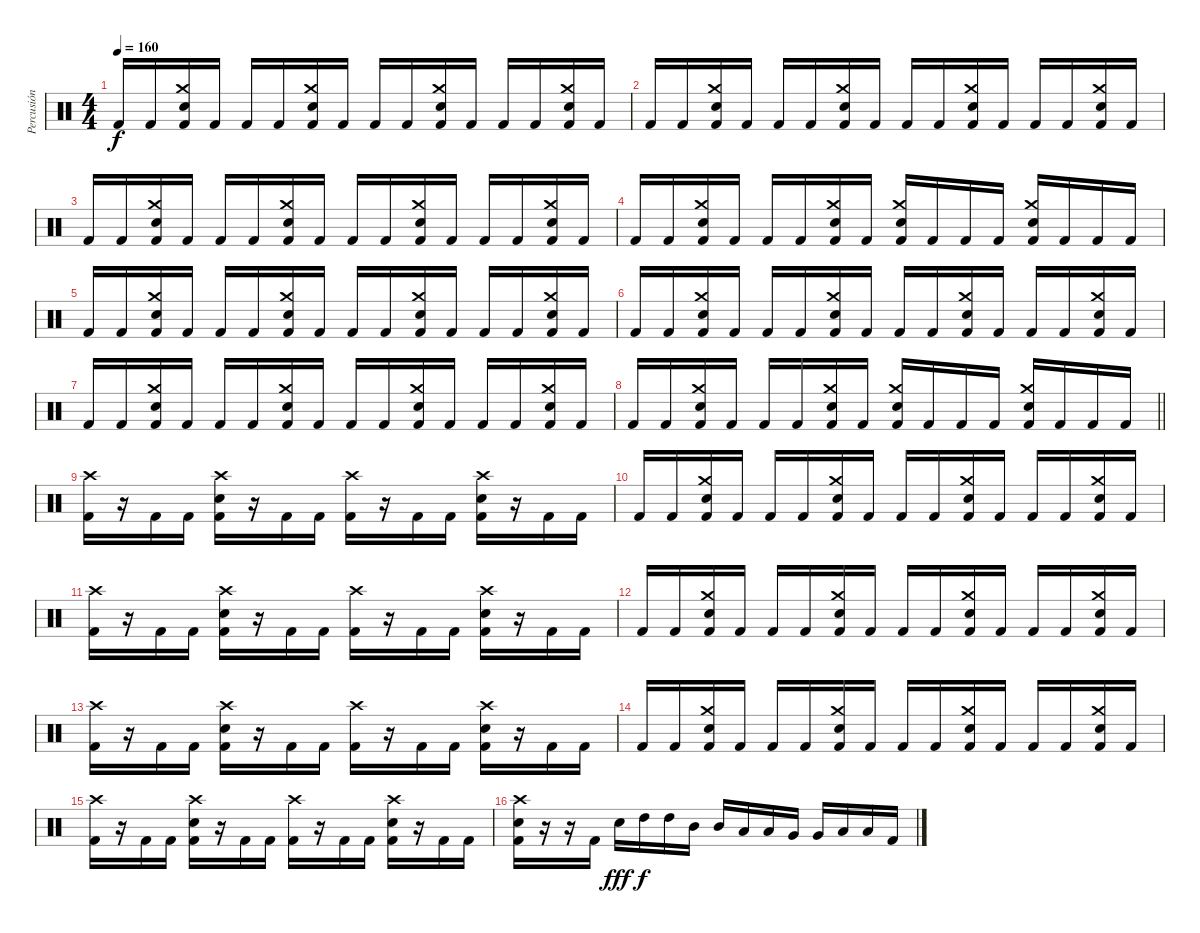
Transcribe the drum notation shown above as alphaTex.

\track ("Percusión" "Percusión") {instrument percussion}
\staff {score}
\articulation defaults
\ts (4 4)
\tempo 160
\clef neutral
\ks c "Kick (hit) 2".16{dy f} "Kick (hit) 2".16
("Crash medium (hit)" "Electric Snare (hit)" "Kick (hit) 2").16 "Kick (hit) 2".16 "Kick (hit) 2".16 "Kick (hit) 2".16 ("Crash medium (hit)" "Electric Snare (hit)" "Kick (hit) 2").16 "Kick (hit) 2".16 "Kick (hit) 2".16 "Kick (hit) 2".16 ("Crash medium (hit)" "Electric Snare (hit)" "Kick (hit) 2").16 "Kick (hit) 2".16 "Kick (hit) 2".16 "Kick (hit) 2".16 ("Crash medium (hit)" "Electric Snare (hit)" "Kick (hit) 2").16 "Kick (hit) 2".16 |
"Kick (hit) 2".16 "Kick (hit) 2".16 ("Crash medium (hit)" "Electric Snare (hit)" "Kick (hit) 2").16 "Kick (hit) 2".16 "Kick (hit) 2".16 "Kick (hit) 2".16 ("Crash medium (hit)" "Electric Snare (hit)" "Kick (hit) 2").16 "Kick (hit) 2".16 "Kick (hit) 2".16 "Kick (hit) 2".16 ("Crash medium (hit)" "Electric Snare (hit)" "Kick (hit) 2").16 "Kick (hit) 2".16 "Kick (hit) 2".16 "Kick (hit) 2".16 ("Crash medium (hit)" "Electric Snare (hit)" "Kick (hit) 2").16 "Kick (hit) 2".16 |
"Kick (hit) 2".16 "Kick (hit) 2".16 ("Crash medium (hit)" "Electric Snare (hit)" "Kick (hit) 2").16 "Kick (hit) 2".16 "Kick (hit) 2".16 "Kick (hit) 2".16 ("Crash medium (hit)" "Electric Snare (hit)" "Kick (hit) 2").16 "Kick (hit) 2".16 "Kick (hit) 2".16 "Kick (hit) 2".16 ("Crash medium (hit)" "Electric Snare (hit)" "Kick (hit) 2").16 "Kick (hit) 2".16 "Kick (hit) 2".16 "Kick (hit) 2".16 ("Crash medium (hit)" "Electric Snare (hit)" "Kick (hit) 2").16 "Kick (hit) 2".16 |
"Kick (hit) 2".16 "Kick (hit) 2".16 ("Crash medium (hit)" "Electric Snare (hit)" "Kick (hit) 2").16 "Kick (hit) 2".16 "Kick (hit) 2".16 "Kick (hit) 2".16 ("Crash medium (hit)" "Electric Snare (hit)" "Kick (hit) 2").16 "Kick (hit) 2".16 ("Crash medium (hit)" "Electric Snare (hit)" "Kick (hit) 2").16 "Kick (hit) 2".16 "Kick (hit) 2".16 "Kick (hit) 2".16 ("Crash medium (hit)" "Electric Snare (hit)" "Kick (hit) 2").16 "Kick (hit) 2".16 "Kick (hit) 2".16 "Kick (hit) 2".16 |
"Kick (hit) 2".16 "Kick (hit) 2".16 ("Crash medium (hit)" "Electric Snare (hit)" "Kick (hit) 2").16 "Kick (hit) 2".16 "Kick (hit) 2".16 "Kick (hit) 2".16 ("Crash medium (hit)" "Electric Snare (hit)" "Kick (hit) 2").16 "Kick (hit) 2".16 "Kick (hit) 2".16 "Kick (hit) 2".16 ("Crash medium (hit)" "Electric Snare (hit)" "Kick (hit) 2").16 "Kick (hit) 2".16 "Kick (hit) 2".16 "Kick (hit) 2".16 ("Crash medium (hit)" "Electric Snare (hit)" "Kick (hit) 2").16 "Kick (hit) 2".16 |
"Kick (hit) 2".16 "Kick (hit) 2".16 ("Crash medium (hit)" "Electric Snare (hit)" "Kick (hit) 2").16 "Kick (hit) 2".16 "Kick (hit) 2".16 "Kick (hit) 2".16 ("Crash medium (hit)" "Electric Snare (hit)" "Kick (hit) 2").16 "Kick (hit) 2".16 "Kick (hit) 2".16 "Kick (hit) 2".16 ("Crash medium (hit)" "Electric Snare (hit)" "Kick (hit) 2").16 "Kick (hit) 2".16 "Kick (hit) 2".16 "Kick (hit) 2".16 ("Crash medium (hit)" "Electric Snare (hit)" "Kick (hit) 2").16 "Kick (hit) 2".16 |
"Kick (hit) 2".16 "Kick (hit) 2".16 ("Crash medium (hit)" "Electric Snare (hit)" "Kick (hit) 2").16 "Kick (hit) 2".16 "Kick (hit) 2".16 "Kick (hit) 2".16 ("Crash medium (hit)" "Electric Snare (hit)" "Kick (hit) 2").16 "Kick (hit) 2".16 "Kick (hit) 2".16 "Kick (hit) 2".16 ("Crash medium (hit)" "Electric Snare (hit)" "Kick (hit) 2").16 "Kick (hit) 2".16 "Kick (hit) 2".16 "Kick (hit) 2".16 ("Crash medium (hit)" "Electric Snare (hit)" "Kick (hit) 2").16 "Kick (hit) 2".16 |
\barLineRight lightlight "Kick (hit) 2".16 "Kick (hit) 2".16
("Crash medium (hit)" "Electric Snare (hit)" "Kick (hit) 2").16 "Kick (hit) 2".16 "Kick (hit) 2".16 "Kick (hit) 2".16 ("Crash medium (hit)" "Electric Snare (hit)" "Kick (hit) 2").16 "Kick (hit) 2".16 ("Crash medium (hit)" "Electric Snare (hit)" "Kick (hit) 2").16 "Kick (hit) 2".16 "Kick (hit) 2".16 "Kick (hit) 2".16 ("Crash medium (hit)" "Electric Snare (hit)" "Kick (hit) 2").16 "Kick (hit) 2".16 "Kick (hit) 2".16 "Kick (hit) 2".16 |
("Crash high (hit)" "Kick (hit) 2").16 r.16 "Kick (hit) 2".16 "Kick (hit) 2".16 ("Crash high (hit)" "Electric Snare (hit)" "Kick (hit) 2").16 r.16 "Kick (hit) 2".16 "Kick (hit) 2".16 ("Crash high (hit)" "Kick (hit) 2").16 r.16 "Kick (hit) 2".16 "Kick (hit) 2".16 ("Crash high (hit)" "Electric Snare (hit)" "Kick (hit) 2").16 r.16 "Kick (hit) 2".16 "Kick (hit) 2".16 |
"Kick (hit) 2".16 "Kick (hit) 2".16 ("Crash medium (hit)" "Electric Snare (hit)" "Kick (hit) 2").16 "Kick (hit) 2".16 "Kick (hit) 2".16 "Kick (hit) 2".16 ("Crash medium (hit)" "Electric Snare (hit)" "Kick (hit) 2").16 "Kick (hit) 2".16 "Kick (hit) 2".16 "Kick (hit) 2".16 ("Crash medium (hit)" "Electric Snare (hit)" "Kick (hit) 2").16 "Kick (hit) 2".16 "Kick (hit) 2".16 "Kick (hit) 2".16 ("Crash medium (hit)" "Electric Snare (hit)" "Kick (hit) 2").16 "Kick (hit) 2".16 |
("Crash high (hit)" "Kick (hit) 2").16 r.16 "Kick (hit) 2".16 "Kick (hit) 2".16 ("Crash high (hit)" "Electric Snare (hit)" "Kick (hit) 2").16 r.16 "Kick (hit) 2".16 "Kick (hit) 2".16 ("Crash high (hit)" "Kick (hit) 2").16 r.16 "Kick (hit) 2".16 "Kick (hit) 2".16 ("Crash high (hit)" "Electric Snare (hit)" "Kick (hit) 2").16 r.16 "Kick (hit) 2".16 "Kick (hit) 2".16 |
"Kick (hit) 2".16 "Kick (hit) 2".16 ("Crash medium (hit)" "Electric Snare (hit)" "Kick (hit) 2").16 "Kick (hit) 2".16 "Kick (hit) 2".16 "Kick (hit) 2".16 ("Crash medium (hit)" "Electric Snare (hit)" "Kick (hit) 2").16 "Kick (hit) 2".16 "Kick (hit) 2".16 "Kick (hit) 2".16 ("Crash medium (hit)" "Electric Snare (hit)" "Kick (hit) 2").16 "Kick (hit) 2".16 "Kick (hit) 2".16 "Kick (hit) 2".16 ("Crash medium (hit)" "Electric Snare (hit)" "Kick (hit) 2").16 "Kick (hit) 2".16 |
("Crash high (hit)" "Kick (hit) 2").16 r.16 "Kick (hit) 2".16 "Kick (hit) 2".16 ("Crash high (hit)" "Electric Snare (hit)" "Kick (hit) 2").16 r.16 "Kick (hit) 2".16 "Kick (hit) 2".16 ("Crash high (hit)" "Kick (hit) 2").16 r.16 "Kick (hit) 2".16 "Kick (hit) 2".16 ("Crash high (hit)" "Electric Snare (hit)" "Kick (hit) 2").16 r.16 "Kick (hit) 2".16 "Kick (hit) 2".16 |
"Kick (hit) 2".16 "Kick (hit) 2".16 ("Crash medium (hit)" "Electric Snare (hit)" "Kick (hit) 2").16 "Kick (hit) 2".16 "Kick (hit) 2".16 "Kick (hit) 2".16 ("Crash medium (hit)" "Electric Snare (hit)" "Kick (hit) 2").16 "Kick (hit) 2".16 "Kick (hit) 2".16 "Kick (hit) 2".16 ("Crash medium (hit)" "Electric Snare (hit)" "Kick (hit) 2").16 "Kick (hit) 2".16 "Kick (hit) 2".16 "Kick (hit) 2".16 ("Crash medium (hit)" "Electric Snare (hit)" "Kick (hit) 2").16 "Kick (hit) 2".16 |
("Crash high (hit)" "Kick (hit) 2").16 r.16 "Kick (hit) 2".16 "Kick (hit) 2".16 ("Crash high (hit)" "Electric Snare (hit)" "Kick (hit) 2").16 r.16 "Kick (hit) 2".16 "Kick (hit) 2".16 ("Crash high (hit)" "Kick (hit) 2").16 r.16 "Kick (hit) 2".16 "Kick (hit) 2".16 ("Crash high (hit)" "Electric Snare (hit)" "Kick (hit) 2").16 r.16 "Kick (hit) 2".16 "Kick (hit) 2".16 |
("Crash high (hit)" "Electric Snare (hit)" "Kick (hit) 2").16 r.16 r.16 "Kick (hit) 2".16 "Electric Snare (hit)".16{dy fff} "High Tom (hit)".16{dy f} "High Tom (hit)".16 "Mid Tom (hit)".16 "Mid Tom (hit)".16 "Low Tom (hit)".16 "Low Tom (hit)".16 "Very Low Tom (hit)".16 "Very Low Tom (hit)".16 "Low Floor Tom (hit)".16 "Low Floor Tom (hit)".16 "Kick (hit) 2".16
